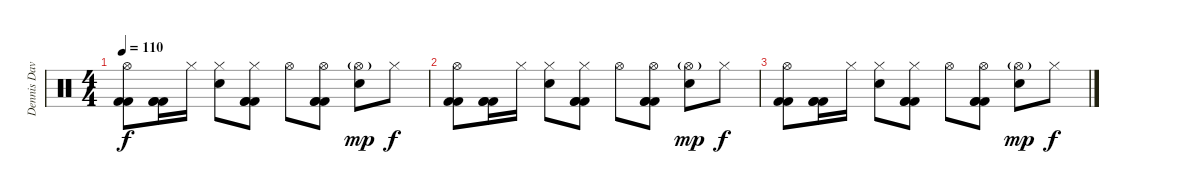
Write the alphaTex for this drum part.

\track ("Dennis Davis" "Dennis Dav") {instrument percussion}
\staff {score}
\articulation defaults
\ts (4 4)
\tempo 110
\clef neutral
\ks c
("Hi-Hat (open)" "Kick (hit) 2" "Kick (hit) 2").8{dy f} ("Kick (hit) 2" "Kick (hit) 2" "Kick (hit) 2").16 "Hi-Hat (closed)".16 ("Hi-Hat (closed)" "Snare (hit) 2").8 ("Hi-Hat (closed)" "Kick (hit) 2" "Kick (hit) 2" "Kick (hit) 2").8 "Hi-Hat (open)".8 ("Hi-Hat (open)" "Kick (hit) 2" "Kick (hit) 2" "Kick (hit) 2").8 ("Hi-Hat (open)"{g} "Snare (hit) 2").8{dy mp} "Hi-Hat (closed)".8{dy f} |
("Hi-Hat (open)" "Kick (hit) 2" "Kick (hit) 2").8 ("Kick (hit) 2" "Kick (hit) 2" "Kick (hit) 2").16 "Hi-Hat (closed)".16 ("Hi-Hat (closed)" "Snare (hit) 2").8 ("Hi-Hat (closed)" "Kick (hit) 2" "Kick (hit) 2" "Kick (hit) 2").8 "Hi-Hat (open)".8 ("Hi-Hat (open)" "Kick (hit) 2" "Kick (hit) 2" "Kick (hit) 2").8 ("Hi-Hat (open)"{g} "Snare (hit) 2").8{dy mp} "Hi-Hat (closed)".8{dy f} |
("Hi-Hat (open)" "Kick (hit) 2" "Kick (hit) 2").8 ("Kick (hit) 2" "Kick (hit) 2" "Kick (hit) 2").16 "Hi-Hat (closed)".16 ("Hi-Hat (closed)" "Snare (hit) 2").8 ("Hi-Hat (closed)" "Kick (hit) 2" "Kick (hit) 2" "Kick (hit) 2").8 "Hi-Hat (open)".8 ("Hi-Hat (open)" "Kick (hit) 2" "Kick (hit) 2" "Kick (hit) 2").8 ("Hi-Hat (open)"{g} "Snare (hit) 2").8{dy mp} "Hi-Hat (closed)".8{dy f}
